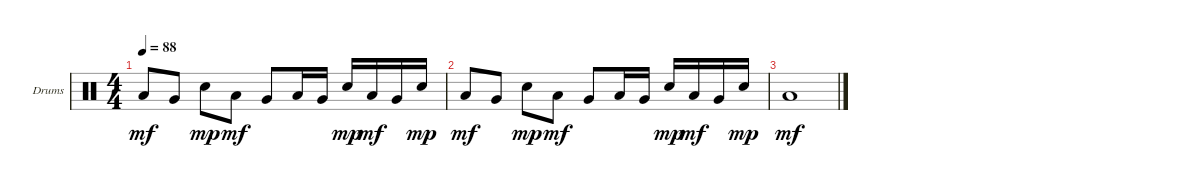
\defaultSystemsLayout 4
\bracketExtendMode groupsimilarinstruments
\firstSystemTrackNameOrientation horizontal
\otherSystemsTrackNameOrientation horizontal
\track ("Helders" "Drums") {instrument percussion}
\staff {score}
\articulation defaults
\ts (4 4)
\tempo 88
\clef neutral
\ks c "Low Tom (hit)".8{dy mf} "Very Low Tom (hit)".8 "Snare (hit) 2".8{dy mp} "Low Tom (hit)".8{dy mf} "Very Low Tom (hit)".8 "Low Tom (hit)".16 "Very Low Tom (hit)".16 "Snare (hit) 2".16{dy mp} "Low Tom (hit)".16{dy mf} "Very Low Tom (hit)".16 "Snare (hit) 2".16{dy mp}
|
"Low Tom (hit)".8{dy mf} "Very Low Tom (hit)".8 "Snare (hit) 2".8{dy mp} "Low Tom (hit)".8{dy mf} "Very Low Tom (hit)".8 "Low Tom (hit)".16 "Very Low Tom (hit)".16 "Snare (hit) 2".16{dy mp} "Low Tom (hit)".16{dy mf} "Very Low Tom (hit)".16 "Snare (hit) 2".16{dy mp} |
"Low Tom (hit)".1{dy mf}
